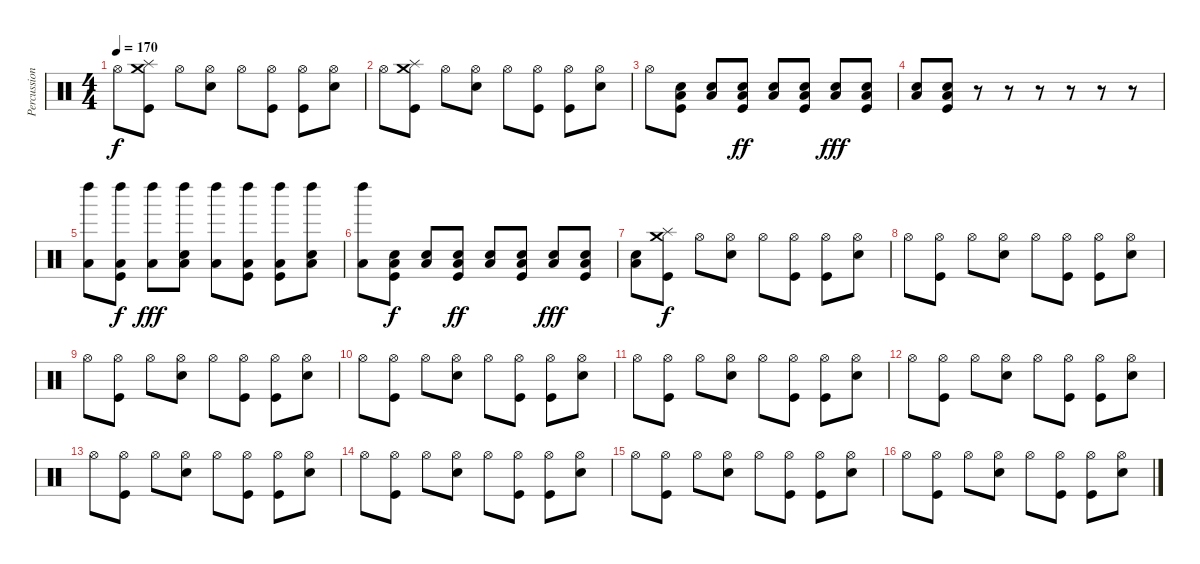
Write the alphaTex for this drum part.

\track ("Percussion" "Percussion") {instrument percussion}
\staff {score}
\articulation defaults
\ts (4 4)
\tempo 170
\clef neutral
\ks c "Hi-Hat (open)".8{dy f}
("Crash medium (hit)" "Splash (hit)" "Kick (hit)").8 "Hi-Hat (open)".8 ("Hi-Hat (open)" "Electric Snare (hit)").8 "Hi-Hat (open)".8 ("Hi-Hat (open)" "Kick (hit)").8 ("Hi-Hat (open)" "Kick (hit)").8 ("Hi-Hat (open)" "Electric Snare (hit)").8 |
"Hi-Hat (open)".8 ("Splash (hit)" "Crash medium (hit)" "Kick (hit)").8 "Hi-Hat (open)".8 ("Hi-Hat (open)" "Electric Snare (hit)").8 "Hi-Hat (open)".8 ("Hi-Hat (open)" "Kick (hit)").8 ("Hi-Hat (open)" "Kick (hit)").8 ("Hi-Hat (open)" "Electric Snare (hit)").8 |
"Hi-Hat (open)".8 ("Low Floor Tom (hit)" "Electric Snare (hit)" "Kick (hit)").8 ("Low Floor Tom (hit)" "Electric Snare (hit)").8 ("Low Floor Tom (hit)" "Electric Snare (hit)" "Kick (hit)").8{dy ff} ("Low Floor Tom (hit)" "Electric Snare (hit)").8 ("Low Floor Tom (hit)" "Electric Snare (hit)" "Kick (hit)").8 ("Low Floor Tom (hit)" "Electric Snare (hit)").8{dy fff} ("Low Floor Tom (hit)" "Electric Snare (hit)" "Kick (hit)").8 |
("Low Floor Tom (hit)" "Electric Snare (hit)").8 ("Low Floor Tom (hit)" "Electric Snare (hit)" "Kick (hit)").8 r.8 r.8 r.8 r.8 r.8 r.8 |
("Left Maraca (hit)" "Low Floor Tom (hit)").8 ("Left Maraca (hit)" "Low Floor Tom (hit)" "Kick (hit)").8{dy f} ("Left Maraca (hit)" "Low Floor Tom (hit)").8{dy fff} ("Left Maraca (hit)" "Low Floor Tom (hit)" "Electric Snare (hit)").8 ("Left Maraca (hit)" "Low Floor Tom (hit)").8 ("Left Maraca (hit)" "Low Floor Tom (hit)" "Kick (hit)").8 ("Left Maraca (hit)" "Low Floor Tom (hit)" "Kick (hit)").8 ("Left Maraca (hit)" "Low Floor Tom (hit)" "Electric Snare (hit)").8 |
("Left Maraca (hit)" "Low Floor Tom (hit)").8 ("Low Floor Tom (hit)" "Electric Snare (hit)" "Kick (hit)").8{dy f} ("Low Floor Tom (hit)" "Electric Snare (hit)").8 ("Low Floor Tom (hit)" "Electric Snare (hit)" "Kick (hit)").8{dy ff} ("Low Floor Tom (hit)" "Electric Snare (hit)").8 ("Low Floor Tom (hit)" "Electric Snare (hit)" "Kick (hit)").8 ("Low Floor Tom (hit)" "Electric Snare (hit)").8{dy fff} ("Low Floor Tom (hit)" "Electric Snare (hit)" "Kick (hit)").8 |
("Low Floor Tom (hit)" "Electric Snare (hit)").8 ("Crash medium (hit)" "Splash (hit)" "Kick (hit)").8{dy f} "Hi-Hat (open)".8 ("Hi-Hat (open)" "Electric Snare (hit)").8 "Hi-Hat (open)".8 ("Hi-Hat (open)" "Kick (hit)").8 ("Hi-Hat (open)" "Kick (hit)").8 ("Hi-Hat (open)" "Electric Snare (hit)").8 |
"Hi-Hat (open)".8 ("Hi-Hat (open)" "Kick (hit)").8 "Hi-Hat (open)".8 ("Hi-Hat (open)" "Electric Snare (hit)").8 "Hi-Hat (open)".8 ("Hi-Hat (open)" "Kick (hit)").8 ("Hi-Hat (open)" "Kick (hit)").8 ("Hi-Hat (open)" "Electric Snare (hit)").8 |
"Hi-Hat (open)".8 ("Hi-Hat (open)" "Kick (hit)").8 "Hi-Hat (open)".8 ("Hi-Hat (open)" "Electric Snare (hit)").8 "Hi-Hat (open)".8 ("Hi-Hat (open)" "Kick (hit)").8 ("Hi-Hat (open)" "Kick (hit)").8 ("Hi-Hat (open)" "Electric Snare (hit)").8 |
"Hi-Hat (open)".8 ("Hi-Hat (open)" "Kick (hit)").8 "Hi-Hat (open)".8 ("Hi-Hat (open)" "Electric Snare (hit)").8 "Hi-Hat (open)".8 ("Hi-Hat (open)" "Kick (hit)").8 ("Hi-Hat (open)" "Kick (hit)").8 ("Hi-Hat (open)" "Electric Snare (hit)").8 |
"Hi-Hat (open)".8 ("Hi-Hat (open)" "Kick (hit)").8 "Hi-Hat (open)".8 ("Hi-Hat (open)" "Electric Snare (hit)").8 "Hi-Hat (open)".8 ("Hi-Hat (open)" "Kick (hit)").8 ("Hi-Hat (open)" "Kick (hit)").8 ("Hi-Hat (open)" "Electric Snare (hit)").8 |
"Hi-Hat (open)".8 ("Hi-Hat (open)" "Kick (hit)").8 "Hi-Hat (open)".8 ("Hi-Hat (open)" "Electric Snare (hit)").8 "Hi-Hat (open)".8 ("Hi-Hat (open)" "Kick (hit)").8 ("Hi-Hat (open)" "Kick (hit)").8 ("Hi-Hat (open)" "Electric Snare (hit)").8 |
"Hi-Hat (open)".8 ("Hi-Hat (open)" "Kick (hit)").8 "Hi-Hat (open)".8 ("Hi-Hat (open)" "Electric Snare (hit)").8 "Hi-Hat (open)".8 ("Hi-Hat (open)" "Kick (hit)").8 ("Hi-Hat (open)" "Kick (hit)").8 ("Hi-Hat (open)" "Electric Snare (hit)").8 |
"Hi-Hat (open)".8 ("Hi-Hat (open)" "Kick (hit)").8 "Hi-Hat (open)".8 ("Hi-Hat (open)" "Electric Snare (hit)").8 "Hi-Hat (open)".8 ("Hi-Hat (open)" "Kick (hit)").8 ("Hi-Hat (open)" "Kick (hit)").8 ("Hi-Hat (open)" "Electric Snare (hit)").8 |
"Hi-Hat (open)".8 ("Hi-Hat (open)" "Kick (hit)").8 "Hi-Hat (open)".8 ("Hi-Hat (open)" "Electric Snare (hit)").8 "Hi-Hat (open)".8 ("Hi-Hat (open)" "Kick (hit)").8 ("Hi-Hat (open)" "Kick (hit)").8 ("Hi-Hat (open)" "Electric Snare (hit)").8 |
"Hi-Hat (open)".8 ("Hi-Hat (open)" "Kick (hit)").8 "Hi-Hat (open)".8 ("Hi-Hat (open)" "Electric Snare (hit)").8 "Hi-Hat (open)".8 ("Hi-Hat (open)" "Kick (hit)").8 ("Hi-Hat (open)" "Kick (hit)").8 ("Hi-Hat (open)" "Electric Snare (hit)").8
